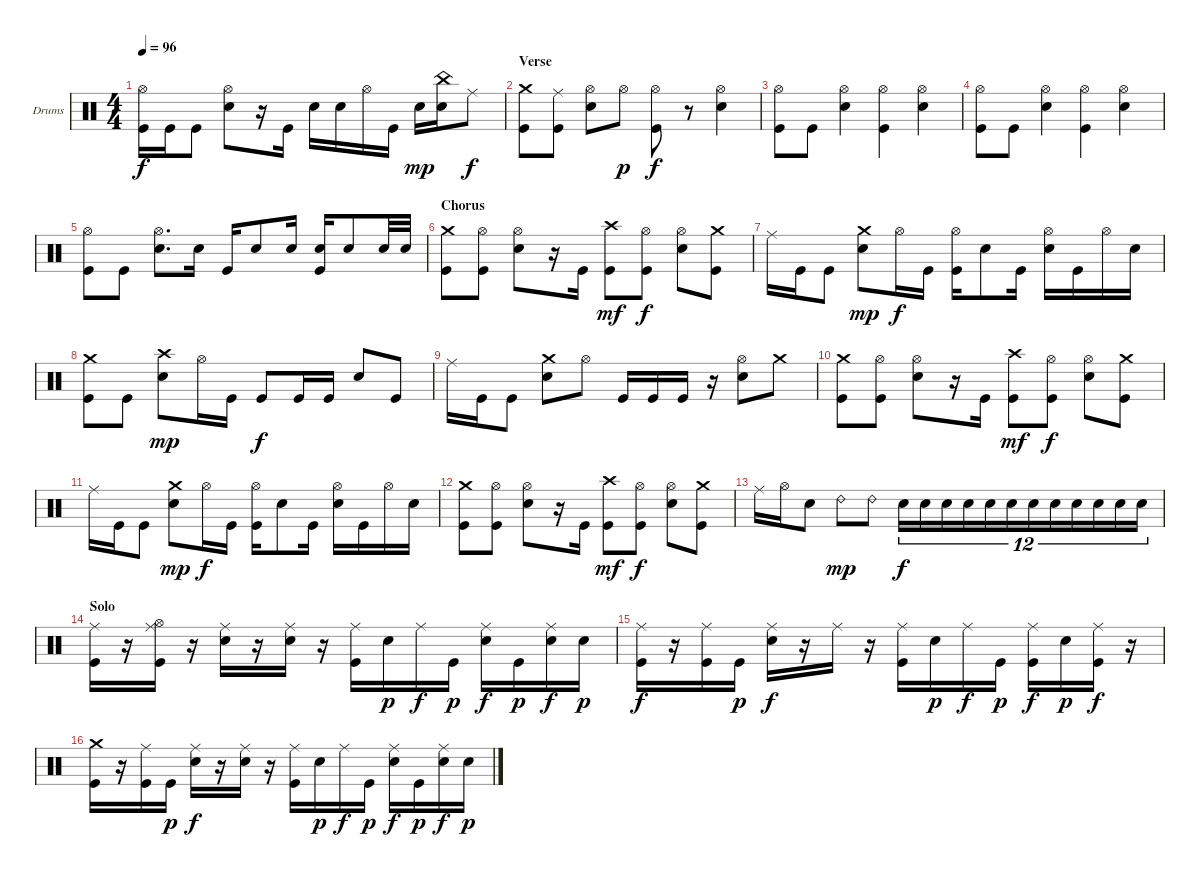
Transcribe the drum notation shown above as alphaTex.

\defaultSystemsLayout 4
\bracketExtendMode nobrackets
\firstSystemTrackNameOrientation horizontal
\otherSystemsTrackNameOrientation horizontal
\track ("Dave Abbruzzese" "Drums") {solo instrument percussion}
\staff {score}
\articulation defaults
\ts (4 4)
\tempo 96
\clef neutral
\ks c
("Hi-Hat (open)" "Kick (hit)").16{dy f} "Kick (hit)".16 "Kick (hit)".8 ("Hi-Hat (open)" "Snare (hit) 2").8 r.16 "Kick (hit)".16 "Snare (hit) 2".16 "Snare (hit) 2".16 "Hi-Hat (open)".16 "Kick (hit)".16 "Snare (hit) 2".16{dy mp} ("China (hit)" "Snare (hit) 2").16 "Ride (middle)".8{dy f} |
\section ("" "Verse")
("Crash medium (hit)" "Kick (hit)").8 ("Ride (middle)" "Kick (hit)").8 ("Hi-Hat (open)" "Snare (hit) 2").8 "Hi-Hat (open)".8{dy p} ("Hi-Hat (open)" "Kick (hit)").8{dy f} r.8 ("Hi-Hat (open)" "Snare (hit) 2").4 |
("Hi-Hat (open)" "Kick (hit)").8 "Kick (hit)".8 ("Hi-Hat (open)" "Snare (hit) 2").4 ("Hi-Hat (open)" "Kick (hit)").4 ("Hi-Hat (open)" "Snare (hit) 2").4 |
("Hi-Hat (open)" "Kick (hit)").8 "Kick (hit)".8 ("Hi-Hat (open)" "Snare (hit) 2").4 ("Hi-Hat (open)" "Kick (hit)").4 ("Hi-Hat (open)" "Snare (hit) 2").4 |
("Hi-Hat (open)" "Kick (hit)").8 "Kick (hit)".8 ("Hi-Hat (open)" "Snare (hit) 2").8{d} "Snare (hit) 2".16 "Kick (hit)".16 "Snare (hit) 2".8 "Snare (hit) 2".16 ("Snare (hit) 2" "Kick (hit)").16 "Snare (hit) 2".8 "Snare (hit) 2".32 "Snare (hit) 2".32 |
\section ("" "Chorus")
("Crash medium (hit)" "Kick (hit)").8 ("Hi-Hat (open)" "Kick (hit)").8 ("Hi-Hat (open)" "Snare (hit) 2").8 r.16 "Kick (hit)".16 ("Crash high (hit)" "Kick (hit)").8{dy mf} ("Hi-Hat (open)" "Kick (hit)").8{dy f} ("Hi-Hat (open)" "Snare (hit) 2").8 ("Crash medium (hit)" "Kick (hit)").8 |
"Ride (middle)".16 "Kick (hit)".16 "Kick (hit)".8 ("Crash medium (hit)" "Snare (hit) 2").8{dy mp} "Hi-Hat (open)".16{dy f} "Kick (hit)".16 ("Hi-Hat (open)" "Kick (hit)").16 "Snare (hit) 2".8 "Kick (hit)".16 ("Hi-Hat (open)" "Snare (hit) 2").16 "Kick (hit)".16 "Hi-Hat (open)".16 "Snare (hit) 2".16 |
("Crash medium (hit)" "Kick (hit)").8 "Kick (hit)".8 ("Crash high (hit)" "Snare (hit) 2").8{dy mp} "Hi-Hat (open)".16 "Kick (hit)".16 "Kick (hit)".8{dy f} "Kick (hit)".16 "Kick (hit)".16 "Snare (hit) 2".8 "Kick (hit)".8 |
"Ride (middle)".16 "Kick (hit)".16 "Kick (hit)".8 ("Crash medium (hit)" "Snare (hit) 2").8 "Hi-Hat (open)".8 "Kick (hit)".16 "Kick (hit)".16 "Kick (hit)".16 r.16 ("Hi-Hat (open)" "Snare (hit) 2").8 "Crash medium (hit)".8 |
("Crash medium (hit)" "Kick (hit)").8 ("Hi-Hat (open)" "Kick (hit)").8 ("Hi-Hat (open)" "Snare (hit) 2").8 r.16 "Kick (hit)".16 ("Crash high (hit)" "Kick (hit)").8{dy mf} ("Hi-Hat (open)" "Kick (hit)").8{dy f} ("Hi-Hat (open)" "Snare (hit) 2").8 ("Crash medium (hit)" "Kick (hit)").8 |
"Ride (middle)".16 "Kick (hit)".16 "Kick (hit)".8 ("Crash medium (hit)" "Snare (hit) 2").8{dy mp} "Hi-Hat (open)".16{dy f} "Kick (hit)".16 ("Hi-Hat (open)" "Kick (hit)").16 "Snare (hit) 2".8 "Kick (hit)".16 ("Hi-Hat (open)" "Snare (hit) 2").16 "Kick (hit)".16 "Hi-Hat (open)".16 "Snare (hit) 2".16 |
("Crash medium (hit)" "Kick (hit)").8 ("Hi-Hat (open)" "Kick (hit)").8 ("Hi-Hat (open)" "Snare (hit) 2").8 r.16 "Kick (hit)".16 ("Crash high (hit)" "Kick (hit)").8{dy mf} ("Hi-Hat (open)" "Kick (hit)").8{dy f} ("Hi-Hat (open)" "Snare (hit) 2").8 ("Crash medium (hit)" "Kick (hit)").8 |
"Ride (middle)".16 "Hi-Hat (open)".16 "Snare (hit) 2".8 "Ride (bell) 2".8{dy mp} "Ride (bell) 2".8 "Snare (hit) 2".16{tu (12 8) dy f} "Snare (hit) 2".16{tu (12 8)} "Snare (hit) 2".16{tu (12 8)} "Snare (hit) 2".16{tu (12 8)} "Snare (hit) 2".16{tu (12 8)} "Snare (hit) 2".16{tu (12 8)} "Snare (hit) 2".16{tu (12 8)} "Snare (hit) 2".16{tu (12 8)} "Snare (hit) 2".16{tu (12 8)} "Snare (hit) 2".16{tu (12 8)} "Snare (hit) 2".16{tu (12 8)} "Snare (hit) 2".16{tu (12 8)} |
\section ("" "Solo")
("Ride (middle)" "Kick (hit)").16 r.16 ("Ride (middle)" "Hi-Hat (open)" "Kick (hit)").16 r.16 ("Ride (middle)" "Snare (hit) 2").16 r.16 ("Ride (middle)" "Snare (hit) 2").16 r.16 ("Ride (middle)" "Kick (hit)").16 "Snare (hit) 2".16{dy p} "Ride (middle)".16{dy f} "Kick (hit)".16{dy p} ("Ride (middle)" "Snare (hit) 2").16{dy f} "Kick (hit)".16{dy p} ("Ride (middle)" "Snare (hit) 2").16{dy f} "Snare (hit) 2".16{dy p} |
("Ride (middle)" "Kick (hit)").16{dy f} r.16 ("Ride (middle)" "Kick (hit)").16 "Kick (hit)".16{dy p} ("Ride (middle)" "Snare (hit) 2").16{dy f} r.16 "Ride (middle)".16 r.16 ("Ride (middle)" "Kick (hit)").16 "Snare (hit) 2".16{dy p} "Ride (middle)".16{dy f} "Kick (hit)".16{dy p} ("Ride (middle)" "Kick (hit)").16{dy f} "Snare (hit) 2".16{dy p} ("Ride (middle)" "Kick (hit)").16{dy f} r.16 |
("Crash medium (hit)" "Kick (hit)").16 r.16 ("Ride (middle)" "Kick (hit)").16 "Kick (hit)".16{dy p} ("Ride (middle)" "Snare (hit) 2").16{dy f} r.16 ("Ride (middle)" "Snare (hit) 2").16 r.16 ("Ride (middle)" "Kick (hit)").16 "Snare (hit) 2".16{dy p} "Ride (middle)".16{dy f} "Kick (hit)".16{dy p} ("Ride (middle)" "Snare (hit) 2").16{dy f} "Kick (hit)".16{dy p} ("Ride (middle)" "Snare (hit) 2").16{dy f} "Snare (hit) 2".16{dy p}
